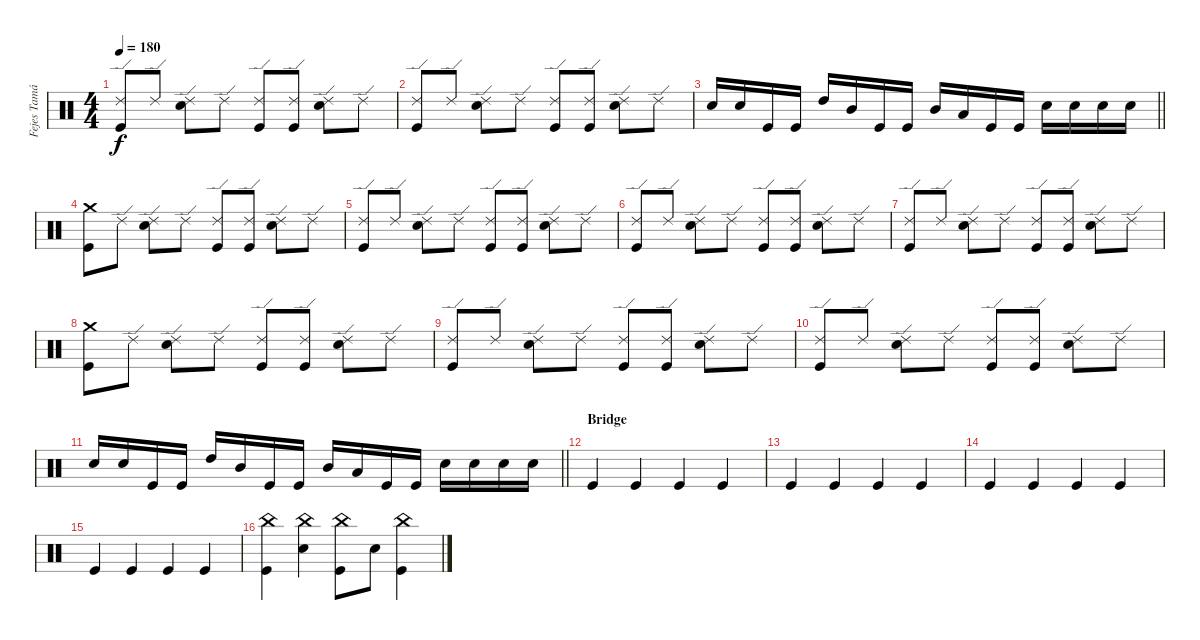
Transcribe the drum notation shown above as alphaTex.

\track ("Fejes Tamás - Dob" "Fejes Tamá") {instrument percussion}
\staff {score}
\articulation defaults
\ts (4 4)
\tempo 180
\clef neutral
\ks c
("Ride (edge) 2" "Kick (hit)").8{dy f} "Ride (edge) 2".8 ("Ride (edge) 2" "Electric Snare (hit)").8 "Ride (edge) 2".8 ("Ride (edge) 2" "Kick (hit)").8 ("Ride (edge) 2" "Kick (hit)").8 ("Ride (edge) 2" "Electric Snare (hit)").8 "Ride (edge) 2".8 |
("Ride (edge) 2" "Kick (hit)").8 "Ride (edge) 2".8 ("Ride (edge) 2" "Electric Snare (hit)").8 "Ride (edge) 2".8 ("Ride (edge) 2" "Kick (hit)").8 ("Ride (edge) 2" "Kick (hit)").8 ("Ride (edge) 2" "Electric Snare (hit)").8 "Ride (edge) 2".8 |
\barLineRight lightlight "Electric Snare (hit)".16 "Electric Snare (hit)".16 "Kick (hit)".16 "Kick (hit)".16 "High Tom (hit)".16 "Mid Tom (hit)".16 "Kick (hit)".16 "Kick (hit)".16 "Mid Tom (hit)".16 "Low Tom (hit)".16 "Kick (hit)".16 "Kick (hit)".16 "Electric Snare (hit)".16 "Electric Snare (hit)".16 "Electric Snare (hit)".16 "Electric Snare (hit)".16
|
("Crash medium (hit)" "Kick (hit)").8 "Ride (edge) 2".8 ("Ride (edge) 2" "Electric Snare (hit)").8 "Ride (edge) 2".8 ("Ride (edge) 2" "Kick (hit)").8 ("Ride (edge) 2" "Kick (hit)").8 ("Ride (edge) 2" "Electric Snare (hit)").8 "Ride (edge) 2".8 |
("Ride (edge) 2" "Kick (hit)").8 "Ride (edge) 2".8 ("Ride (edge) 2" "Electric Snare (hit)").8 "Ride (edge) 2".8 ("Ride (edge) 2" "Kick (hit)").8 ("Ride (edge) 2" "Kick (hit)").8 ("Ride (edge) 2" "Electric Snare (hit)").8 "Ride (edge) 2".8 |
("Ride (edge) 2" "Kick (hit)").8 "Ride (edge) 2".8 ("Ride (edge) 2" "Electric Snare (hit)").8 "Ride (edge) 2".8 ("Ride (edge) 2" "Kick (hit)").8 ("Ride (edge) 2" "Kick (hit)").8 ("Ride (edge) 2" "Electric Snare (hit)").8 "Ride (edge) 2".8 |
("Ride (edge) 2" "Kick (hit)").8 "Ride (edge) 2".8 ("Ride (edge) 2" "Electric Snare (hit)").8 "Ride (edge) 2".8 ("Ride (edge) 2" "Kick (hit)").8 ("Ride (edge) 2" "Kick (hit)").8 ("Ride (edge) 2" "Electric Snare (hit)").8 "Ride (edge) 2".8 |
("Crash medium (hit)" "Kick (hit)").8 "Ride (edge) 2".8 ("Ride (edge) 2" "Electric Snare (hit)").8 "Ride (edge) 2".8 ("Ride (edge) 2" "Kick (hit)").8 ("Ride (edge) 2" "Kick (hit)").8 ("Ride (edge) 2" "Electric Snare (hit)").8 "Ride (edge) 2".8 |
("Ride (edge) 2" "Kick (hit)").8 "Ride (edge) 2".8 ("Ride (edge) 2" "Electric Snare (hit)").8 "Ride (edge) 2".8 ("Ride (edge) 2" "Kick (hit)").8 ("Ride (edge) 2" "Kick (hit)").8 ("Ride (edge) 2" "Electric Snare (hit)").8 "Ride (edge) 2".8 |
("Ride (edge) 2" "Kick (hit)").8 "Ride (edge) 2".8 ("Ride (edge) 2" "Electric Snare (hit)").8 "Ride (edge) 2".8 ("Ride (edge) 2" "Kick (hit)").8 ("Ride (edge) 2" "Kick (hit)").8 ("Ride (edge) 2" "Electric Snare (hit)").8 "Ride (edge) 2".8 |
\barLineRight lightlight "Electric Snare (hit)".16 "Electric Snare (hit)".16 "Kick (hit)".16 "Kick (hit)".16 "High Tom (hit)".16 "Mid Tom (hit)".16 "Kick (hit)".16 "Kick (hit)".16 "Mid Tom (hit)".16 "Low Tom (hit)".16 "Kick (hit)".16 "Kick (hit)".16 "Electric Snare (hit)".16 "Electric Snare (hit)".16 "Electric Snare (hit)".16 "Electric Snare (hit)".16
|
\section ("" "Bridge")
"Kick (hit)".4 "Kick (hit)".4 "Kick (hit)".4 "Kick (hit)".4 |
"Kick (hit)".4 "Kick (hit)".4 "Kick (hit)".4 "Kick (hit)".4 |
"Kick (hit)".4 "Kick (hit)".4 "Kick (hit)".4 "Kick (hit)".4 |
"Kick (hit)".4 "Kick (hit)".4 "Kick (hit)".4 "Kick (hit)".4 |
("China (hit)" "Kick (hit)").4 ("China (hit)" "Electric Snare (hit)").4 ("China (hit)" "Kick (hit)").8 "Electric Snare (hit)".8 ("China (hit)" "Kick (hit)").4
